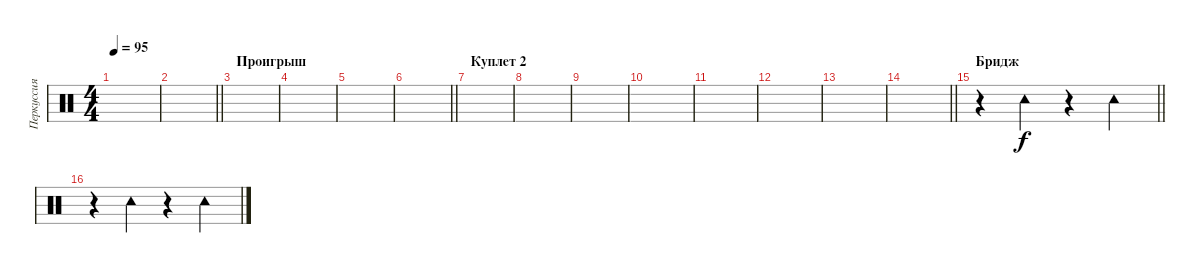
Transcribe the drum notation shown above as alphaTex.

\track ("Перкуссия" "Перкуссия") {instrument percussion}
\staff {score}
\articulation defaults
\ts (4 4)
\tempo 95
\clef neutral
\ks c
|
\barLineRight lightlight
|
\section ("" "Проигрыш")
|
|
|
\barLineRight lightlight
|
\section ("" "Куплет 2")
|
|
|
|
|
|
|
\barLineRight lightlight
|
\section ("" "Бридж")
\barLineRight lightlight
r.4{volume 6} "Tambourine (hit)".4 r.4 "Tambourine (hit)".4 |
r.4 "Tambourine (hit)".4 r.4 "Tambourine (hit)".4
